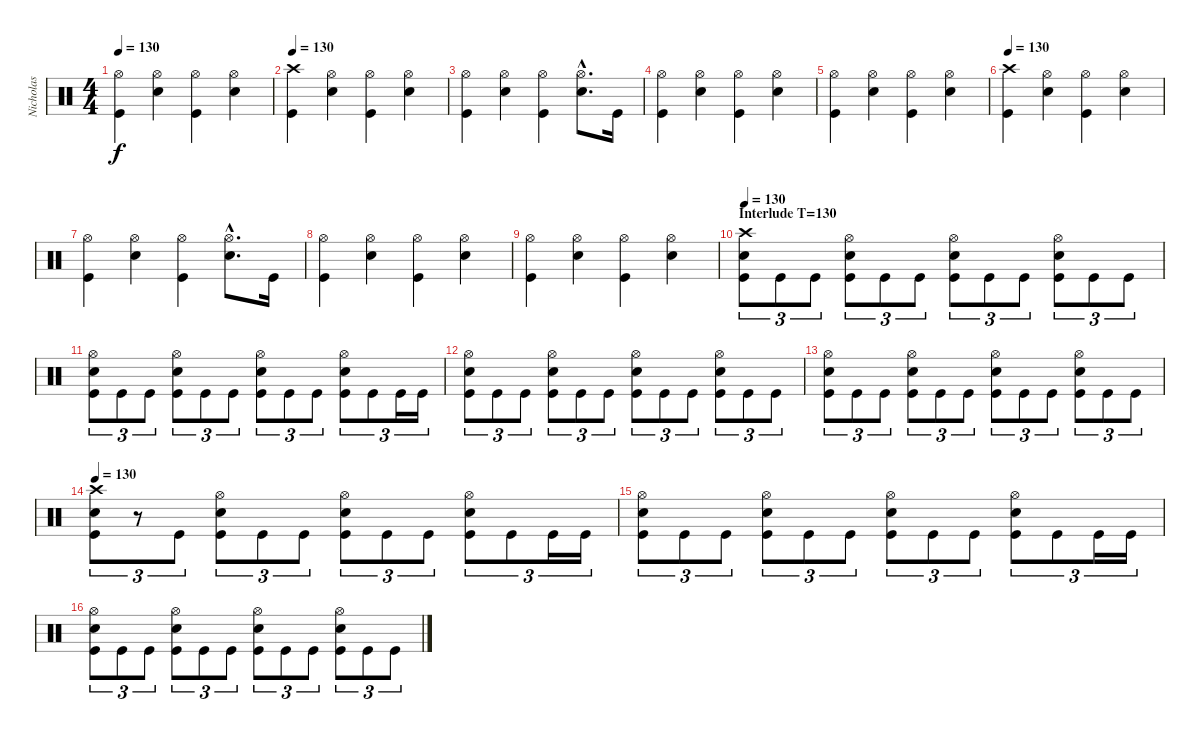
\track ("Nicholas" "Nicholas") {instrument percussion}
\staff {score}
\articulation defaults
\ts (4 4)
\tempo 130
\clef neutral
\ks c
("Hi-Hat (open)" "Kick (hit)").4{dy f} ("Hi-Hat (open)" "Electric Snare (hit)").4 ("Hi-Hat (open)" "Kick (hit)").4 ("Hi-Hat (open)" "Electric Snare (hit)").4 |
\tempo 130
("Crash high (hit)" "Kick (hit)").4 ("Hi-Hat (open)" "Electric Snare (hit)").4 ("Hi-Hat (open)" "Kick (hit)").4 ("Hi-Hat (open)" "Electric Snare (hit)").4 |
("Hi-Hat (open)" "Kick (hit)").4 ("Hi-Hat (open)" "Electric Snare (hit)").4 ("Hi-Hat (open)" "Kick (hit)").4 ("Hi-Hat (open)"{hac} "Electric Snare (hit)"{hac}).8{d} "Kick (hit)".16 |
("Hi-Hat (open)" "Kick (hit)").4 ("Hi-Hat (open)" "Electric Snare (hit)").4 ("Hi-Hat (open)" "Kick (hit)").4 ("Hi-Hat (open)" "Electric Snare (hit)").4 |
("Hi-Hat (open)" "Kick (hit)").4 ("Hi-Hat (open)" "Electric Snare (hit)").4 ("Hi-Hat (open)" "Kick (hit)").4 ("Hi-Hat (open)" "Electric Snare (hit)").4 |
\tempo 130
("Crash high (hit)" "Kick (hit)").4 ("Hi-Hat (open)" "Electric Snare (hit)").4 ("Hi-Hat (open)" "Kick (hit)").4 ("Hi-Hat (open)" "Electric Snare (hit)").4 |
("Hi-Hat (open)" "Kick (hit)").4 ("Hi-Hat (open)" "Electric Snare (hit)").4 ("Hi-Hat (open)" "Kick (hit)").4 ("Hi-Hat (open)"{hac} "Electric Snare (hit)"{hac}).8{d} "Kick (hit)".16 |
("Hi-Hat (open)" "Kick (hit)").4 ("Hi-Hat (open)" "Electric Snare (hit)").4 ("Hi-Hat (open)" "Kick (hit)").4 ("Hi-Hat (open)" "Electric Snare (hit)").4 |
("Hi-Hat (open)" "Kick (hit)").4 ("Hi-Hat (open)" "Electric Snare (hit)").4 ("Hi-Hat (open)" "Kick (hit)").4 ("Hi-Hat (open)" "Electric Snare (hit)").4 |
\section ("" "Interlude T=130")
\tempo 130
("Crash high (hit)" "Electric Snare (hit)" "Kick (hit)").8{tu (3 2)} "Kick (hit)".8{tu (3 2)} "Kick (hit)".8{tu (3 2)} ("Hi-Hat (open)" "Electric Snare (hit)" "Kick (hit)").8{tu (3 2)} "Kick (hit)".8{tu (3 2)} "Kick (hit)".8{tu (3 2)} ("Hi-Hat (open)" "Electric Snare (hit)" "Kick (hit)").8{tu (3 2)} "Kick (hit)".8{tu (3 2)} "Kick (hit)".8{tu (3 2)} ("Hi-Hat (open)" "Electric Snare (hit)" "Kick (hit)").8{tu (3 2)} "Kick (hit)".8{tu (3 2)} "Kick (hit)".8{tu (3 2)} |
("Hi-Hat (open)" "Electric Snare (hit)" "Kick (hit)").8{tu (3 2)} "Kick (hit)".8{tu (3 2)} "Kick (hit)".8{tu (3 2)} ("Hi-Hat (open)" "Electric Snare (hit)" "Kick (hit)").8{tu (3 2)} "Kick (hit)".8{tu (3 2)} "Kick (hit)".8{tu (3 2)} ("Hi-Hat (open)" "Electric Snare (hit)" "Kick (hit)").8{tu (3 2)} "Kick (hit)".8{tu (3 2)} "Kick (hit)".8{tu (3 2)} ("Hi-Hat (open)" "Electric Snare (hit)" "Kick (hit)").8{tu (3 2)} "Kick (hit)".8{tu (3 2)} "Kick (hit)".16{tu (3 2)} "Kick (hit)".16{tu (3 2)} |
("Hi-Hat (open)" "Electric Snare (hit)" "Kick (hit)").8{tu (3 2)} "Kick (hit)".8{tu (3 2)} "Kick (hit)".8{tu (3 2)} ("Hi-Hat (open)" "Electric Snare (hit)" "Kick (hit)").8{tu (3 2)} "Kick (hit)".8{tu (3 2)} "Kick (hit)".8{tu (3 2)} ("Hi-Hat (open)" "Electric Snare (hit)" "Kick (hit)").8{tu (3 2)} "Kick (hit)".8{tu (3 2)} "Kick (hit)".8{tu (3 2)} ("Hi-Hat (open)" "Electric Snare (hit)" "Kick (hit)").8{tu (3 2)} "Kick (hit)".8{tu (3 2)} "Kick (hit)".8{tu (3 2)} |
("Hi-Hat (open)" "Electric Snare (hit)" "Kick (hit)").8{tu (3 2)} "Kick (hit)".8{tu (3 2)} "Kick (hit)".8{tu (3 2)} ("Hi-Hat (open)" "Electric Snare (hit)" "Kick (hit)").8{tu (3 2)} "Kick (hit)".8{tu (3 2)} "Kick (hit)".8{tu (3 2)} ("Hi-Hat (open)" "Electric Snare (hit)" "Kick (hit)").8{tu (3 2)} "Kick (hit)".8{tu (3 2)} "Kick (hit)".8{tu (3 2)} ("Hi-Hat (open)" "Electric Snare (hit)" "Kick (hit)").8{tu (3 2)} "Kick (hit)".8{tu (3 2)} "Kick (hit)".8{tu (3 2)} |
\tempo 130
("Crash high (hit)" "Electric Snare (hit)" "Kick (hit)").8{tu (3 2)} r.8{tu (3 2)} "Kick (hit)".8{tu (3 2)} ("Hi-Hat (open)" "Electric Snare (hit)" "Kick (hit)").8{tu (3 2)} "Kick (hit)".8{tu (3 2)} "Kick (hit)".8{tu (3 2)} ("Hi-Hat (open)" "Electric Snare (hit)" "Kick (hit)").8{tu (3 2)} "Kick (hit)".8{tu (3 2)} "Kick (hit)".8{tu (3 2)} ("Hi-Hat (open)" "Electric Snare (hit)" "Kick (hit)").8{tu (3 2)} "Kick (hit)".8{tu (3 2)} "Kick (hit)".16{tu (3 2)} "Kick (hit)".16{tu (3 2)} |
("Hi-Hat (open)" "Electric Snare (hit)" "Kick (hit)").8{tu (3 2)} "Kick (hit)".8{tu (3 2)} "Kick (hit)".8{tu (3 2)} ("Hi-Hat (open)" "Electric Snare (hit)" "Kick (hit)").8{tu (3 2)} "Kick (hit)".8{tu (3 2)} "Kick (hit)".8{tu (3 2)} ("Hi-Hat (open)" "Electric Snare (hit)" "Kick (hit)").8{tu (3 2)} "Kick (hit)".8{tu (3 2)} "Kick (hit)".8{tu (3 2)} ("Hi-Hat (open)" "Electric Snare (hit)" "Kick (hit)").8{tu (3 2)} "Kick (hit)".8{tu (3 2)} "Kick (hit)".16{tu (3 2)} "Kick (hit)".16{tu (3 2)} |
("Hi-Hat (open)" "Electric Snare (hit)" "Kick (hit)").8{tu (3 2)} "Kick (hit)".8{tu (3 2)} "Kick (hit)".8{tu (3 2)} ("Hi-Hat (open)" "Electric Snare (hit)" "Kick (hit)").8{tu (3 2)} "Kick (hit)".8{tu (3 2)} "Kick (hit)".8{tu (3 2)} ("Hi-Hat (open)" "Electric Snare (hit)" "Kick (hit)").8{tu (3 2)} "Kick (hit)".8{tu (3 2)} "Kick (hit)".8{tu (3 2)} ("Hi-Hat (open)" "Electric Snare (hit)" "Kick (hit)").8{tu (3 2)} "Kick (hit)".8{tu (3 2)} "Kick (hit)".8{tu (3 2)}
